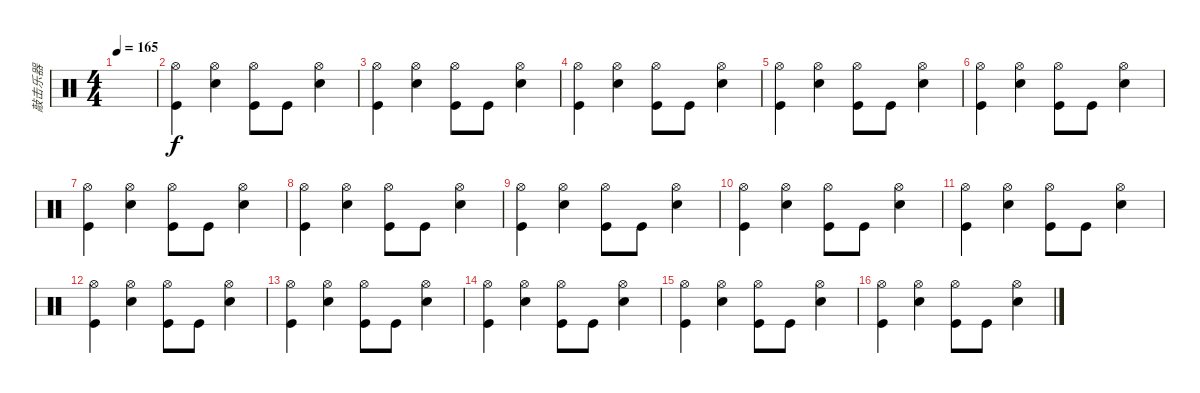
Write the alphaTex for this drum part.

\track ("敲击乐器" "敲击乐器") {instrument percussion}
\staff {score}
\articulation defaults
\ts (4 4)
\tempo 165
\clef neutral
\ks c
|
("Hi-Hat (open)" "Kick (hit)").4 ("Hi-Hat (open)" "Electric Snare (hit)").4 ("Hi-Hat (open)" "Kick (hit)").8 "Kick (hit)".8 ("Hi-Hat (open)" "Electric Snare (hit)").4 |
("Hi-Hat (open)" "Kick (hit)").4 ("Hi-Hat (open)" "Electric Snare (hit)").4 ("Hi-Hat (open)" "Kick (hit)").8 "Kick (hit)".8 ("Hi-Hat (open)" "Electric Snare (hit)").4 |
("Hi-Hat (open)" "Kick (hit)").4 ("Hi-Hat (open)" "Electric Snare (hit)").4 ("Hi-Hat (open)" "Kick (hit)").8 "Kick (hit)".8 ("Hi-Hat (open)" "Electric Snare (hit)").4 |
("Hi-Hat (open)" "Kick (hit)").4 ("Hi-Hat (open)" "Electric Snare (hit)").4 ("Hi-Hat (open)" "Kick (hit)").8 "Kick (hit)".8 ("Hi-Hat (open)" "Electric Snare (hit)").4 |
("Hi-Hat (open)" "Kick (hit)").4 ("Hi-Hat (open)" "Electric Snare (hit)").4 ("Hi-Hat (open)" "Kick (hit)").8 "Kick (hit)".8 ("Hi-Hat (open)" "Electric Snare (hit)").4 |
("Hi-Hat (open)" "Kick (hit)").4 ("Hi-Hat (open)" "Electric Snare (hit)").4 ("Hi-Hat (open)" "Kick (hit)").8 "Kick (hit)".8 ("Hi-Hat (open)" "Electric Snare (hit)").4 |
("Hi-Hat (open)" "Kick (hit)").4 ("Hi-Hat (open)" "Electric Snare (hit)").4 ("Hi-Hat (open)" "Kick (hit)").8 "Kick (hit)".8 ("Hi-Hat (open)" "Electric Snare (hit)").4 |
("Hi-Hat (open)" "Kick (hit)").4 ("Hi-Hat (open)" "Electric Snare (hit)").4 ("Hi-Hat (open)" "Kick (hit)").8 "Kick (hit)".8 ("Hi-Hat (open)" "Electric Snare (hit)").4 |
("Hi-Hat (open)" "Kick (hit)").4 ("Hi-Hat (open)" "Electric Snare (hit)").4 ("Hi-Hat (open)" "Kick (hit)").8 "Kick (hit)".8 ("Hi-Hat (open)" "Electric Snare (hit)").4 |
("Hi-Hat (open)" "Kick (hit)").4 ("Hi-Hat (open)" "Electric Snare (hit)").4 ("Hi-Hat (open)" "Kick (hit)").8 "Kick (hit)".8 ("Hi-Hat (open)" "Electric Snare (hit)").4 |
("Hi-Hat (open)" "Kick (hit)").4 ("Hi-Hat (open)" "Electric Snare (hit)").4 ("Hi-Hat (open)" "Kick (hit)").8 "Kick (hit)".8 ("Hi-Hat (open)" "Electric Snare (hit)").4 |
("Hi-Hat (open)" "Kick (hit)").4 ("Hi-Hat (open)" "Electric Snare (hit)").4 ("Hi-Hat (open)" "Kick (hit)").8 "Kick (hit)".8 ("Hi-Hat (open)" "Electric Snare (hit)").4 |
("Hi-Hat (open)" "Kick (hit)").4 ("Hi-Hat (open)" "Electric Snare (hit)").4 ("Hi-Hat (open)" "Kick (hit)").8 "Kick (hit)".8 ("Hi-Hat (open)" "Electric Snare (hit)").4 |
("Hi-Hat (open)" "Kick (hit)").4 ("Hi-Hat (open)" "Electric Snare (hit)").4 ("Hi-Hat (open)" "Kick (hit)").8 "Kick (hit)".8 ("Hi-Hat (open)" "Electric Snare (hit)").4 |
("Hi-Hat (open)" "Kick (hit)").4 ("Hi-Hat (open)" "Electric Snare (hit)").4 ("Hi-Hat (open)" "Kick (hit)").8 "Kick (hit)".8 ("Hi-Hat (open)" "Electric Snare (hit)").4
